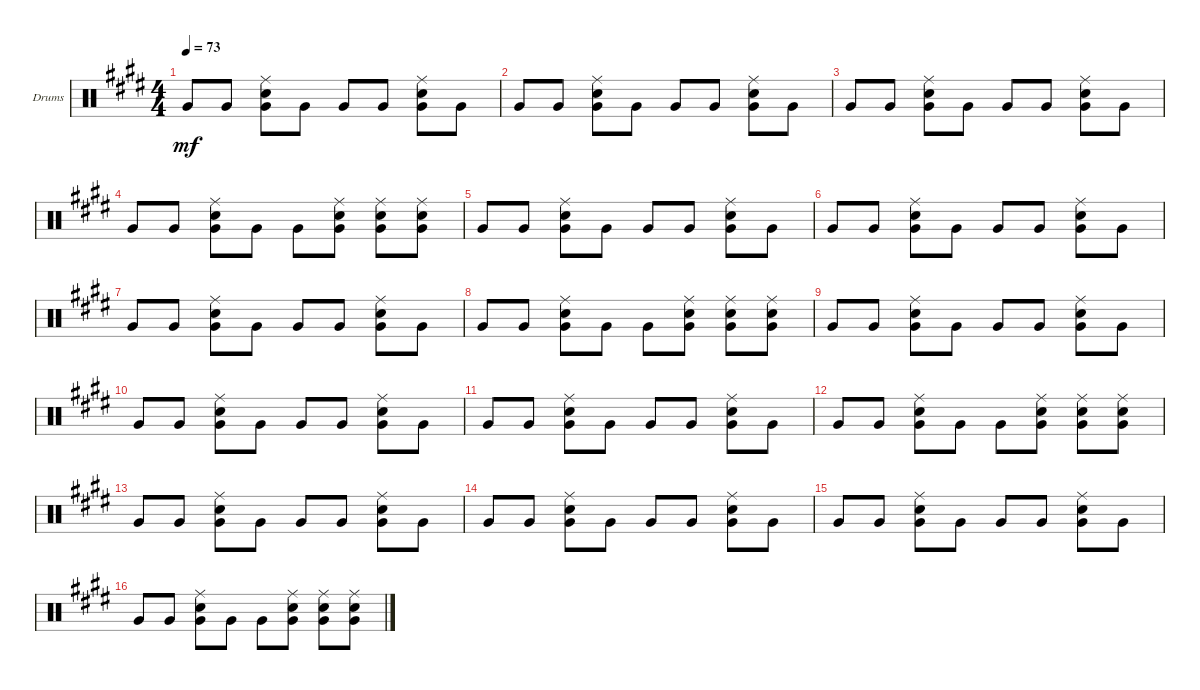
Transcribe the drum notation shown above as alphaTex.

\defaultSystemsLayout 4
\bracketExtendMode groupsimilarinstruments
\firstSystemTrackNameOrientation horizontal
\otherSystemsTrackNameOrientation horizontal
\track ("Drumkit" "Drums") {instrument percussion}
\staff {score}
\articulation defaults
\ts (4 4)
\tempo 73
\clef neutral
\ks e "Very Low Tom (hit)".8{dy mf} "Very Low Tom (hit)".8
("Very Low Tom (hit)" "Snare (hit) 2" "Ride (middle)").8 "Very Low Tom (hit)".8 "Very Low Tom (hit)".8 "Very Low Tom (hit)".8 ("Very Low Tom (hit)" "Snare (hit) 2" "Ride (middle)").8 "Very Low Tom (hit)".8 |
"Very Low Tom (hit)".8 "Very Low Tom (hit)".8 ("Very Low Tom (hit)" "Snare (hit) 2" "Ride (middle)").8 "Very Low Tom (hit)".8 "Very Low Tom (hit)".8 "Very Low Tom (hit)".8 ("Very Low Tom (hit)" "Snare (hit) 2" "Ride (middle)").8 "Very Low Tom (hit)".8 |
"Very Low Tom (hit)".8 "Very Low Tom (hit)".8 ("Very Low Tom (hit)" "Snare (hit) 2" "Ride (middle)").8 "Very Low Tom (hit)".8 "Very Low Tom (hit)".8 "Very Low Tom (hit)".8 ("Very Low Tom (hit)" "Snare (hit) 2" "Ride (middle)").8 "Very Low Tom (hit)".8 |
"Very Low Tom (hit)".8 "Very Low Tom (hit)".8 ("Very Low Tom (hit)" "Snare (hit) 2" "Ride (middle)").8 "Very Low Tom (hit)".8 "Very Low Tom (hit)".8 ("Very Low Tom (hit)" "Snare (hit) 2" "Ride (middle)").8 ("Very Low Tom (hit)" "Snare (hit) 2" "Ride (middle)").8 ("Very Low Tom (hit)" "Snare (hit) 2" "Ride (middle)").8 |
"Very Low Tom (hit)".8 "Very Low Tom (hit)".8 ("Very Low Tom (hit)" "Snare (hit) 2" "Ride (middle)").8 "Very Low Tom (hit)".8 "Very Low Tom (hit)".8 "Very Low Tom (hit)".8 ("Very Low Tom (hit)" "Snare (hit) 2" "Ride (middle)").8 "Very Low Tom (hit)".8 |
"Very Low Tom (hit)".8 "Very Low Tom (hit)".8 ("Very Low Tom (hit)" "Snare (hit) 2" "Ride (middle)").8 "Very Low Tom (hit)".8 "Very Low Tom (hit)".8 "Very Low Tom (hit)".8 ("Very Low Tom (hit)" "Snare (hit) 2" "Ride (middle)").8 "Very Low Tom (hit)".8 |
"Very Low Tom (hit)".8 "Very Low Tom (hit)".8 ("Very Low Tom (hit)" "Snare (hit) 2" "Ride (middle)").8 "Very Low Tom (hit)".8 "Very Low Tom (hit)".8 "Very Low Tom (hit)".8 ("Very Low Tom (hit)" "Snare (hit) 2" "Ride (middle)").8 "Very Low Tom (hit)".8 |
"Very Low Tom (hit)".8 "Very Low Tom (hit)".8 ("Very Low Tom (hit)" "Snare (hit) 2" "Ride (middle)").8 "Very Low Tom (hit)".8 "Very Low Tom (hit)".8 ("Very Low Tom (hit)" "Snare (hit) 2" "Ride (middle)").8 ("Very Low Tom (hit)" "Snare (hit) 2" "Ride (middle)").8 ("Very Low Tom (hit)" "Snare (hit) 2" "Ride (middle)").8 |
"Very Low Tom (hit)".8 "Very Low Tom (hit)".8 ("Very Low Tom (hit)" "Snare (hit) 2" "Ride (middle)").8 "Very Low Tom (hit)".8 "Very Low Tom (hit)".8 "Very Low Tom (hit)".8 ("Very Low Tom (hit)" "Snare (hit) 2" "Ride (middle)").8 "Very Low Tom (hit)".8 |
"Very Low Tom (hit)".8 "Very Low Tom (hit)".8 ("Very Low Tom (hit)" "Snare (hit) 2" "Ride (middle)").8 "Very Low Tom (hit)".8 "Very Low Tom (hit)".8 "Very Low Tom (hit)".8 ("Very Low Tom (hit)" "Snare (hit) 2" "Ride (middle)").8 "Very Low Tom (hit)".8 |
"Very Low Tom (hit)".8 "Very Low Tom (hit)".8 ("Very Low Tom (hit)" "Snare (hit) 2" "Ride (middle)").8 "Very Low Tom (hit)".8 "Very Low Tom (hit)".8 "Very Low Tom (hit)".8 ("Very Low Tom (hit)" "Snare (hit) 2" "Ride (middle)").8 "Very Low Tom (hit)".8 |
"Very Low Tom (hit)".8 "Very Low Tom (hit)".8 ("Very Low Tom (hit)" "Snare (hit) 2" "Ride (middle)").8 "Very Low Tom (hit)".8 "Very Low Tom (hit)".8 ("Very Low Tom (hit)" "Snare (hit) 2" "Ride (middle)").8 ("Very Low Tom (hit)" "Snare (hit) 2" "Ride (middle)").8 ("Very Low Tom (hit)" "Snare (hit) 2" "Ride (middle)").8 |
"Very Low Tom (hit)".8 "Very Low Tom (hit)".8 ("Very Low Tom (hit)" "Snare (hit) 2" "Ride (middle)").8 "Very Low Tom (hit)".8 "Very Low Tom (hit)".8 "Very Low Tom (hit)".8 ("Very Low Tom (hit)" "Snare (hit) 2" "Ride (middle)").8 "Very Low Tom (hit)".8 |
"Very Low Tom (hit)".8 "Very Low Tom (hit)".8 ("Very Low Tom (hit)" "Snare (hit) 2" "Ride (middle)").8 "Very Low Tom (hit)".8 "Very Low Tom (hit)".8 "Very Low Tom (hit)".8 ("Very Low Tom (hit)" "Snare (hit) 2" "Ride (middle)").8 "Very Low Tom (hit)".8 |
"Very Low Tom (hit)".8 "Very Low Tom (hit)".8 ("Very Low Tom (hit)" "Snare (hit) 2" "Ride (middle)").8 "Very Low Tom (hit)".8 "Very Low Tom (hit)".8 "Very Low Tom (hit)".8 ("Very Low Tom (hit)" "Snare (hit) 2" "Ride (middle)").8 "Very Low Tom (hit)".8 |
"Very Low Tom (hit)".8 "Very Low Tom (hit)".8 ("Very Low Tom (hit)" "Snare (hit) 2" "Ride (middle)").8 "Very Low Tom (hit)".8 "Very Low Tom (hit)".8 ("Very Low Tom (hit)" "Snare (hit) 2" "Ride (middle)").8 ("Very Low Tom (hit)" "Snare (hit) 2" "Ride (middle)").8 ("Very Low Tom (hit)" "Snare (hit) 2" "Ride (middle)").8
